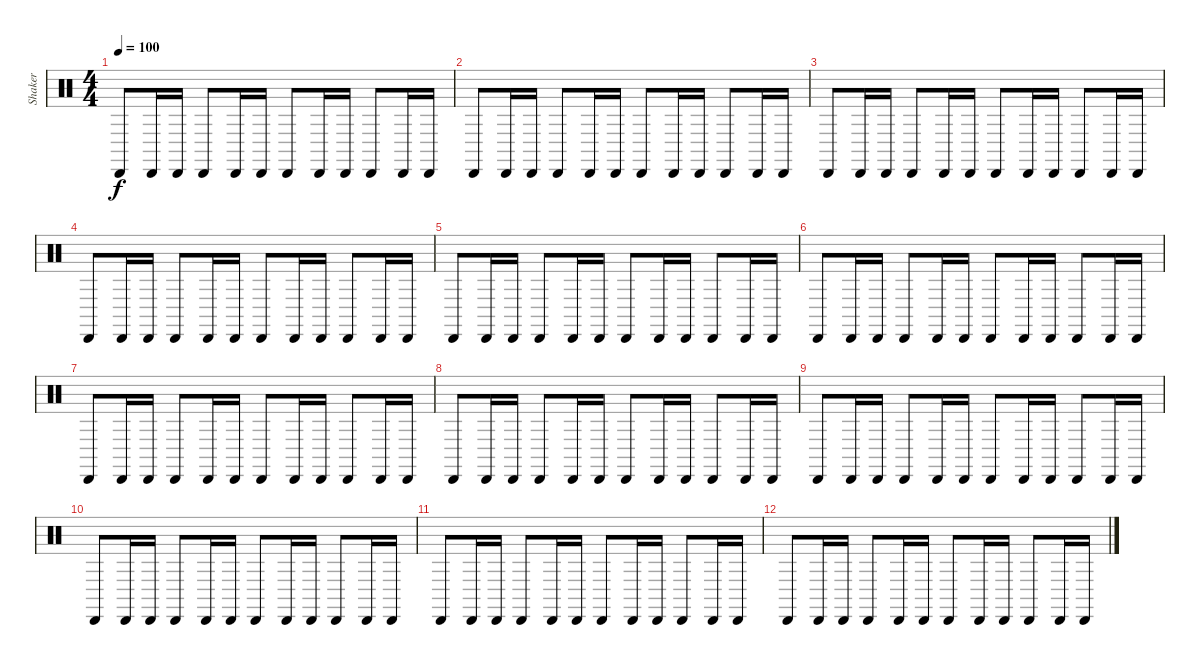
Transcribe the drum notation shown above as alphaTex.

\track ("Shaker" "Shaker") {instrument percussion}
\staff {score}
\articulation defaults
\ts (4 4)
\tempo 100
\clef neutral
\ks c "Cabasa (hit)".8{dy f} "Cabasa (hit)".16 "Cabasa (hit)".16 "Cabasa (hit)".8 "Cabasa (hit)".16 "Cabasa (hit)".16 "Cabasa (hit)".8 "Cabasa (hit)".16 "Cabasa (hit)".16 "Cabasa (hit)".8 "Cabasa (hit)".16 "Cabasa (hit)".16
|
"Cabasa (hit)".8 "Cabasa (hit)".16 "Cabasa (hit)".16 "Cabasa (hit)".8 "Cabasa (hit)".16 "Cabasa (hit)".16 "Cabasa (hit)".8 "Cabasa (hit)".16 "Cabasa (hit)".16 "Cabasa (hit)".8 "Cabasa (hit)".16 "Cabasa (hit)".16 |
"Cabasa (hit)".8 "Cabasa (hit)".16 "Cabasa (hit)".16 "Cabasa (hit)".8 "Cabasa (hit)".16 "Cabasa (hit)".16 "Cabasa (hit)".8 "Cabasa (hit)".16 "Cabasa (hit)".16 "Cabasa (hit)".8 "Cabasa (hit)".16 "Cabasa (hit)".16 |
"Cabasa (hit)".8 "Cabasa (hit)".16 "Cabasa (hit)".16 "Cabasa (hit)".8 "Cabasa (hit)".16 "Cabasa (hit)".16 "Cabasa (hit)".8 "Cabasa (hit)".16 "Cabasa (hit)".16 "Cabasa (hit)".8 "Cabasa (hit)".16 "Cabasa (hit)".16 |
"Cabasa (hit)".8 "Cabasa (hit)".16 "Cabasa (hit)".16 "Cabasa (hit)".8 "Cabasa (hit)".16 "Cabasa (hit)".16 "Cabasa (hit)".8 "Cabasa (hit)".16 "Cabasa (hit)".16 "Cabasa (hit)".8 "Cabasa (hit)".16 "Cabasa (hit)".16 |
"Cabasa (hit)".8 "Cabasa (hit)".16 "Cabasa (hit)".16 "Cabasa (hit)".8 "Cabasa (hit)".16 "Cabasa (hit)".16 "Cabasa (hit)".8 "Cabasa (hit)".16 "Cabasa (hit)".16 "Cabasa (hit)".8 "Cabasa (hit)".16 "Cabasa (hit)".16 |
"Cabasa (hit)".8 "Cabasa (hit)".16 "Cabasa (hit)".16 "Cabasa (hit)".8 "Cabasa (hit)".16 "Cabasa (hit)".16 "Cabasa (hit)".8 "Cabasa (hit)".16 "Cabasa (hit)".16 "Cabasa (hit)".8 "Cabasa (hit)".16 "Cabasa (hit)".16 |
"Cabasa (hit)".8 "Cabasa (hit)".16 "Cabasa (hit)".16 "Cabasa (hit)".8 "Cabasa (hit)".16 "Cabasa (hit)".16 "Cabasa (hit)".8 "Cabasa (hit)".16 "Cabasa (hit)".16 "Cabasa (hit)".8 "Cabasa (hit)".16 "Cabasa (hit)".16 |
"Cabasa (hit)".8 "Cabasa (hit)".16 "Cabasa (hit)".16 "Cabasa (hit)".8 "Cabasa (hit)".16 "Cabasa (hit)".16 "Cabasa (hit)".8 "Cabasa (hit)".16 "Cabasa (hit)".16 "Cabasa (hit)".8 "Cabasa (hit)".16 "Cabasa (hit)".16 |
"Cabasa (hit)".8 "Cabasa (hit)".16 "Cabasa (hit)".16 "Cabasa (hit)".8 "Cabasa (hit)".16 "Cabasa (hit)".16 "Cabasa (hit)".8 "Cabasa (hit)".16 "Cabasa (hit)".16 "Cabasa (hit)".8 "Cabasa (hit)".16 "Cabasa (hit)".16 |
"Cabasa (hit)".8 "Cabasa (hit)".16 "Cabasa (hit)".16 "Cabasa (hit)".8 "Cabasa (hit)".16 "Cabasa (hit)".16 "Cabasa (hit)".8 "Cabasa (hit)".16 "Cabasa (hit)".16 "Cabasa (hit)".8 "Cabasa (hit)".16 "Cabasa (hit)".16 |
"Cabasa (hit)".8 "Cabasa (hit)".16 "Cabasa (hit)".16 "Cabasa (hit)".8 "Cabasa (hit)".16 "Cabasa (hit)".16 "Cabasa (hit)".8 "Cabasa (hit)".16 "Cabasa (hit)".16 "Cabasa (hit)".8 "Cabasa (hit)".16 "Cabasa (hit)".16
